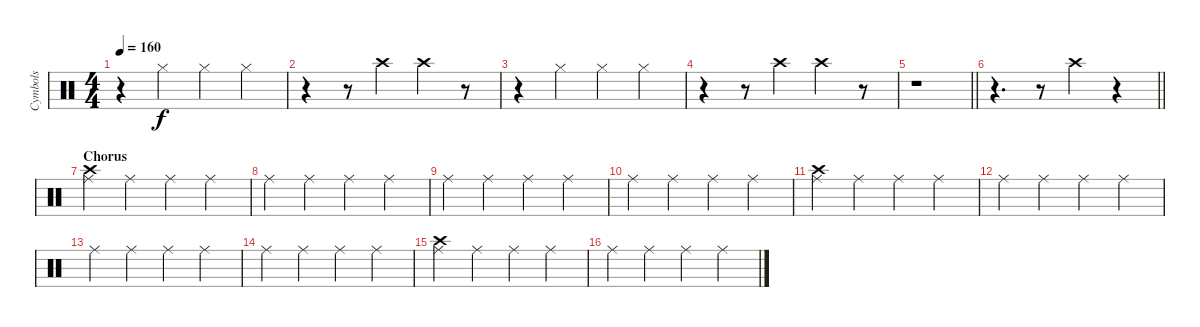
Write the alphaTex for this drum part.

\track ("Cymbols" "Cymbols") {instrument percussion}
\staff {score}
\articulation defaults
\ts (4 4)
\tempo 160
\clef neutral
\ks c
r.4{dy f} "Hi-Hat (closed)".4 "Hi-Hat (closed)".4 "Hi-Hat (closed)".4 |
r.4 r.8 "Crash high (hit)".4 "Crash high (hit)".4 r.8 |
r.4 "Hi-Hat (closed)".4 "Hi-Hat (closed)".4 "Hi-Hat (closed)".4 |
r.4 r.8 "Crash high (hit)".4 "Crash high (hit)".4 r.8 |
\barLineRight lightlight
r.1 |
\barLineRight lightlight
r.4{d} r.8 "Crash high (hit)".4 r.4 |
\section ("" "Chorus")
("Crash high (hit)" "Ride (middle)").4 "Ride (middle)".4 "Ride (middle)".4 "Ride (middle)".4 |
"Ride (middle)".4 "Ride (middle)".4 "Ride (middle)".4 "Ride (middle)".4 |
"Ride (middle)".4 "Ride (middle)".4 "Ride (middle)".4 "Ride (middle)".4 |
"Ride (middle)".4 "Ride (middle)".4 "Ride (middle)".4 "Ride (middle)".4 |
("Crash high (hit)" "Ride (middle)").4 "Ride (middle)".4 "Ride (middle)".4 "Ride (middle)".4 |
"Ride (middle)".4 "Ride (middle)".4 "Ride (middle)".4 "Ride (middle)".4 |
"Ride (middle)".4 "Ride (middle)".4 "Ride (middle)".4 "Ride (middle)".4 |
"Ride (middle)".4 "Ride (middle)".4 "Ride (middle)".4 "Ride (middle)".4 |
("Crash high (hit)" "Ride (middle)").4 "Ride (middle)".4 "Ride (middle)".4 "Ride (middle)".4 |
"Ride (middle)".4 "Ride (middle)".4 "Ride (middle)".4 "Ride (middle)".4
